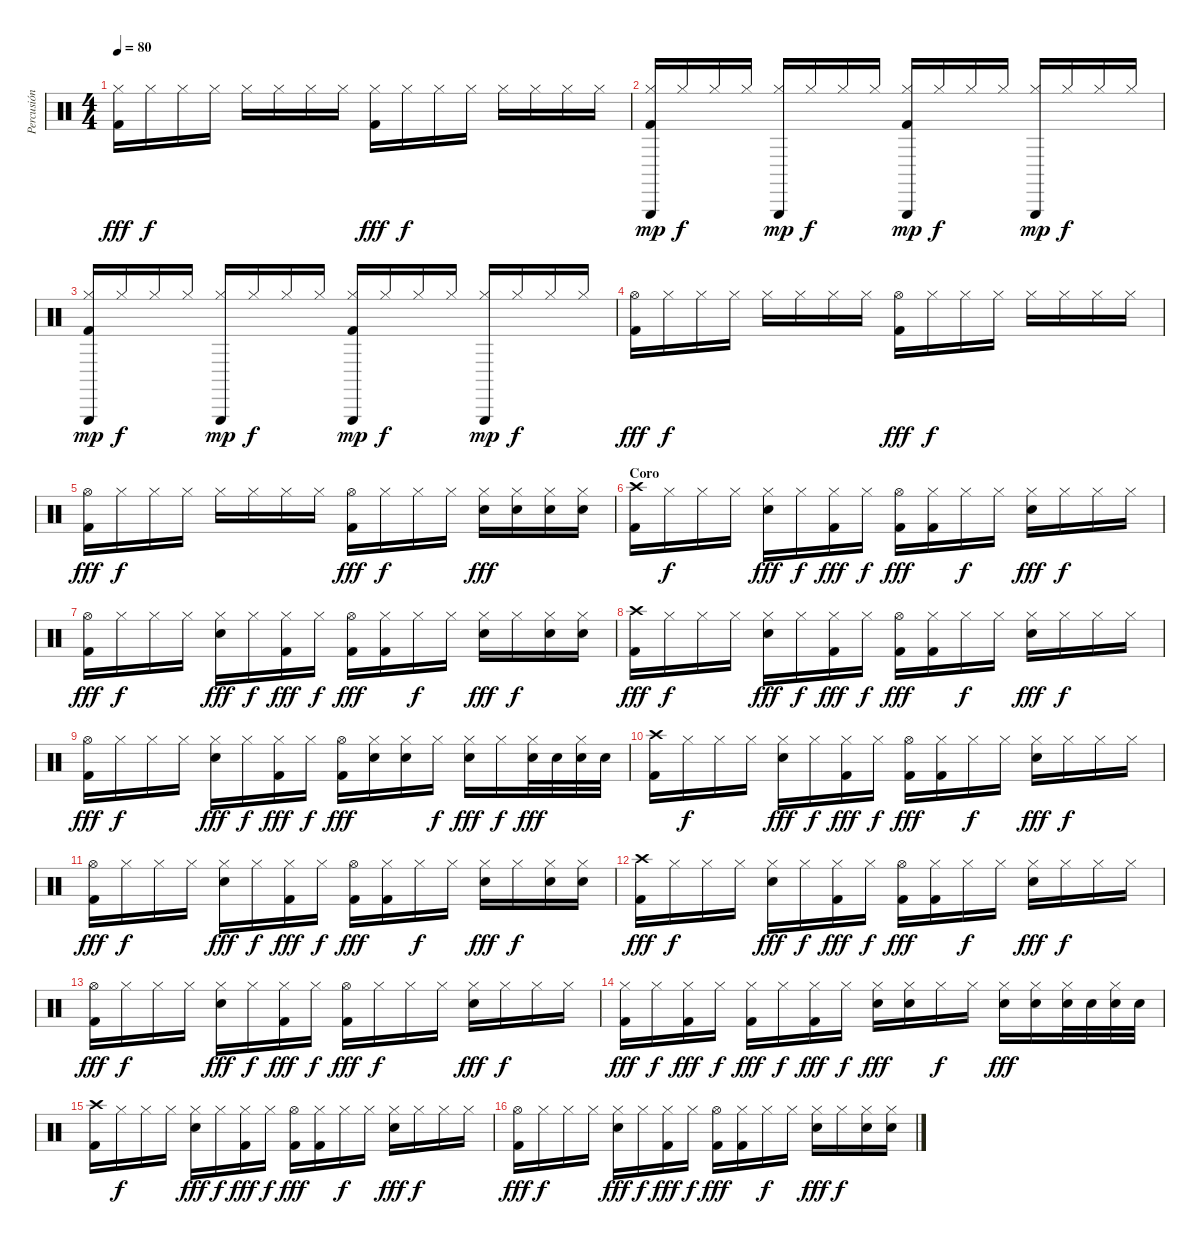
\track ("Percusión" "Percusión") {instrument percussion}
\staff {score}
\articulation defaults
\ts (4 4)
\tempo 80
\clef neutral
\ks c
("Hi-Hat (closed)" "Kick (hit) 2").16{dy fff} "Hi-Hat (closed)".16{dy f} "Hi-Hat (closed)".16 "Hi-Hat (closed)".16 "Hi-Hat (closed)".16 "Hi-Hat (closed)".16 "Hi-Hat (closed)".16 "Hi-Hat (closed)".16 ("Hi-Hat (closed)" "Kick (hit) 2").16{dy fff} "Hi-Hat (closed)".16{dy f} "Hi-Hat (closed)".16 "Hi-Hat (closed)".16 "Hi-Hat (closed)".16 "Hi-Hat (closed)".16 "Hi-Hat (closed)".16 "Hi-Hat (closed)".16 |
("Hi-Hat (closed)" "Kick (hit) 2" "Triangle (hit)").16{dy mp} "Hi-Hat (closed)".16{dy f} "Hi-Hat (closed)".16 "Hi-Hat (closed)".16 ("Hi-Hat (closed)" "Triangle (hit)").16{dy mp} "Hi-Hat (closed)".16{dy f} "Hi-Hat (closed)".16 "Hi-Hat (closed)".16 ("Hi-Hat (closed)" "Kick (hit) 2" "Triangle (hit)").16{dy mp} "Hi-Hat (closed)".16{dy f} "Hi-Hat (closed)".16 "Hi-Hat (closed)".16 ("Hi-Hat (closed)" "Triangle (hit)").16{dy mp} "Hi-Hat (closed)".16{dy f} "Hi-Hat (closed)".16 "Hi-Hat (closed)".16 |
("Hi-Hat (closed)" "Kick (hit) 2" "Triangle (hit)").16{dy mp} "Hi-Hat (closed)".16{dy f} "Hi-Hat (closed)".16 "Hi-Hat (closed)".16 ("Hi-Hat (closed)" "Triangle (hit)").16{dy mp} "Hi-Hat (closed)".16{dy f} "Hi-Hat (closed)".16 "Hi-Hat (closed)".16 ("Hi-Hat (closed)" "Kick (hit) 2" "Triangle (hit)").16{dy mp} "Hi-Hat (closed)".16{dy f} "Hi-Hat (closed)".16 "Hi-Hat (closed)".16 ("Hi-Hat (closed)" "Triangle (hit)").16{dy mp} "Hi-Hat (closed)".16{dy f} "Hi-Hat (closed)".16 "Hi-Hat (closed)".16 |
("Hi-Hat (open)" "Kick (hit) 2").16{dy fff} "Hi-Hat (closed)".16{dy f} "Hi-Hat (closed)".16 "Hi-Hat (closed)".16 "Hi-Hat (closed)".16 "Hi-Hat (closed)".16 "Hi-Hat (closed)".16 "Hi-Hat (closed)".16 ("Hi-Hat (open)" "Kick (hit) 2").16{dy fff} "Hi-Hat (closed)".16{dy f} "Hi-Hat (closed)".16 "Hi-Hat (closed)".16 "Hi-Hat (closed)".16 "Hi-Hat (closed)".16 "Hi-Hat (closed)".16 "Hi-Hat (closed)".16 |
("Hi-Hat (open)" "Kick (hit) 2").16{dy fff} "Hi-Hat (closed)".16{dy f} "Hi-Hat (closed)".16 "Hi-Hat (closed)".16 "Hi-Hat (closed)".16 "Hi-Hat (closed)".16 "Hi-Hat (closed)".16 "Hi-Hat (closed)".16 ("Hi-Hat (open)" "Kick (hit) 2").16{dy fff} "Hi-Hat (closed)".16{dy f} "Hi-Hat (closed)".16 "Hi-Hat (closed)".16 ("Hi-Hat (closed)" "Snare (hit) 2").16{dy fff} ("Hi-Hat (closed)" "Snare (hit) 2").16 ("Hi-Hat (closed)" "Snare (hit) 2").16 ("Hi-Hat (closed)" "Snare (hit) 2").16 |
\section ("" "Coro")
("Crash high (hit)" "Kick (hit) 2").16 "Hi-Hat (closed)".16{dy f} "Hi-Hat (closed)".16 "Hi-Hat (closed)".16 ("Hi-Hat (closed)" "Snare (hit) 2").16{dy fff} "Hi-Hat (closed)".16{dy f} ("Hi-Hat (closed)" "Kick (hit) 2").16{dy fff} "Hi-Hat (closed)".16{dy f} ("Hi-Hat (open)" "Kick (hit) 2").16{dy fff} ("Hi-Hat (closed)" "Kick (hit) 2").16 "Hi-Hat (closed)".16{dy f} "Hi-Hat (closed)".16 ("Hi-Hat (closed)" "Snare (hit) 2").16{dy fff} "Hi-Hat (closed)".16{dy f} "Hi-Hat (closed)".16 "Hi-Hat (closed)".16 |
("Hi-Hat (open)" "Kick (hit) 2").16{dy fff} "Hi-Hat (closed)".16{dy f} "Hi-Hat (closed)".16 "Hi-Hat (closed)".16 ("Hi-Hat (closed)" "Snare (hit) 2").16{dy fff} "Hi-Hat (closed)".16{dy f} ("Hi-Hat (closed)" "Kick (hit) 2").16{dy fff} "Hi-Hat (closed)".16{dy f} ("Hi-Hat (open)" "Kick (hit) 2").16{dy fff} ("Hi-Hat (closed)" "Kick (hit) 2").16 "Hi-Hat (closed)".16{dy f} "Hi-Hat (closed)".16 ("Hi-Hat (closed)" "Snare (hit) 2").16{dy fff} "Hi-Hat (closed)".16{dy f} ("Hi-Hat (closed)" "Snare (hit) 2").16 ("Hi-Hat (closed)" "Snare (hit) 2").16 |
("Crash high (hit)" "Kick (hit) 2").16{dy fff} "Hi-Hat (closed)".16{dy f} "Hi-Hat (closed)".16 "Hi-Hat (closed)".16 ("Hi-Hat (closed)" "Snare (hit) 2").16{dy fff} "Hi-Hat (closed)".16{dy f} ("Hi-Hat (closed)" "Kick (hit) 2").16{dy fff} "Hi-Hat (closed)".16{dy f} ("Hi-Hat (open)" "Kick (hit) 2").16{dy fff} ("Hi-Hat (closed)" "Kick (hit) 2").16 "Hi-Hat (closed)".16{dy f} "Hi-Hat (closed)".16 ("Hi-Hat (closed)" "Snare (hit) 2").16{dy fff} "Hi-Hat (closed)".16{dy f} "Hi-Hat (closed)".16 "Hi-Hat (closed)".16 |
("Hi-Hat (open)" "Kick (hit) 2").16{dy fff} "Hi-Hat (closed)".16{dy f} "Hi-Hat (closed)".16 "Hi-Hat (closed)".16 ("Hi-Hat (closed)" "Snare (hit) 2").16{dy fff} "Hi-Hat (closed)".16{dy f} ("Hi-Hat (closed)" "Kick (hit) 2").16{dy fff} "Hi-Hat (closed)".16{dy f} ("Hi-Hat (open)" "Kick (hit) 2").16{dy fff} ("Hi-Hat (closed)" "Snare (hit) 2").16 ("Hi-Hat (closed)" "Snare (hit) 2").16 "Hi-Hat (closed)".16{dy f} ("Hi-Hat (closed)" "Snare (hit) 2").16{dy fff} "Hi-Hat (closed)".16{dy f} ("Hi-Hat (closed)" "Snare (hit) 2").32{dy fff} "Snare (hit) 2".32 ("Hi-Hat (closed)" "Snare (hit) 2").32 "Snare (hit) 2".32 |
("Crash high (hit)" "Kick (hit) 2").16 "Hi-Hat (closed)".16{dy f} "Hi-Hat (closed)".16 "Hi-Hat (closed)".16 ("Hi-Hat (closed)" "Snare (hit) 2").16{dy fff} "Hi-Hat (closed)".16{dy f} ("Hi-Hat (closed)" "Kick (hit) 2").16{dy fff} "Hi-Hat (closed)".16{dy f} ("Hi-Hat (open)" "Kick (hit) 2").16{dy fff} ("Hi-Hat (closed)" "Kick (hit) 2").16 "Hi-Hat (closed)".16{dy f} "Hi-Hat (closed)".16 ("Hi-Hat (closed)" "Snare (hit) 2").16{dy fff} "Hi-Hat (closed)".16{dy f} "Hi-Hat (closed)".16 "Hi-Hat (closed)".16 |
("Hi-Hat (open)" "Kick (hit) 2").16{dy fff} "Hi-Hat (closed)".16{dy f} "Hi-Hat (closed)".16 "Hi-Hat (closed)".16 ("Hi-Hat (closed)" "Snare (hit) 2").16{dy fff} "Hi-Hat (closed)".16{dy f} ("Hi-Hat (closed)" "Kick (hit) 2").16{dy fff} "Hi-Hat (closed)".16{dy f} ("Hi-Hat (open)" "Kick (hit) 2").16{dy fff} ("Hi-Hat (closed)" "Kick (hit) 2").16 "Hi-Hat (closed)".16{dy f} "Hi-Hat (closed)".16 ("Hi-Hat (closed)" "Snare (hit) 2").16{dy fff} "Hi-Hat (closed)".16{dy f} ("Hi-Hat (closed)" "Snare (hit) 2").16 ("Hi-Hat (closed)" "Snare (hit) 2").16 |
("Crash high (hit)" "Kick (hit) 2").16{dy fff} "Hi-Hat (closed)".16{dy f} "Hi-Hat (closed)".16 "Hi-Hat (closed)".16 ("Hi-Hat (closed)" "Snare (hit) 2").16{dy fff} "Hi-Hat (closed)".16{dy f} ("Hi-Hat (closed)" "Kick (hit) 2").16{dy fff} "Hi-Hat (closed)".16{dy f} ("Hi-Hat (open)" "Kick (hit) 2").16{dy fff} ("Hi-Hat (closed)" "Kick (hit) 2").16 "Hi-Hat (closed)".16{dy f} "Hi-Hat (closed)".16 ("Hi-Hat (closed)" "Snare (hit) 2").16{dy fff} "Hi-Hat (closed)".16{dy f} "Hi-Hat (closed)".16 "Hi-Hat (closed)".16 |
("Hi-Hat (open)" "Kick (hit) 2").16{dy fff} "Hi-Hat (closed)".16{dy f} "Hi-Hat (closed)".16 "Hi-Hat (closed)".16 ("Hi-Hat (closed)" "Snare (hit) 2").16{dy fff} "Hi-Hat (closed)".16{dy f} ("Hi-Hat (closed)" "Kick (hit) 2").16{dy fff} "Hi-Hat (closed)".16{dy f} ("Hi-Hat (open)" "Kick (hit) 2").16{dy fff} "Hi-Hat (closed)".16{dy f} "Hi-Hat (closed)".16 "Hi-Hat (closed)".16 ("Hi-Hat (closed)" "Snare (hit) 2").16{dy fff} "Hi-Hat (closed)".16{dy f} "Hi-Hat (closed)".16 "Hi-Hat (closed)".16 |
("Hi-Hat (closed)" "Kick (hit) 2").16{dy fff} "Hi-Hat (closed)".16{dy f} ("Hi-Hat (closed)" "Kick (hit) 2").16{dy fff} "Hi-Hat (closed)".16{dy f} ("Hi-Hat (closed)" "Kick (hit) 2").16{dy fff} "Hi-Hat (closed)".16{dy f} ("Hi-Hat (closed)" "Kick (hit) 2").16{dy fff} "Hi-Hat (closed)".16{dy f} ("Hi-Hat (closed)" "Snare (hit) 2").16{dy fff} ("Hi-Hat (closed)" "Snare (hit) 2").16 "Hi-Hat (closed)".16{dy f} "Hi-Hat (closed)".16 ("Hi-Hat (closed)" "Snare (hit) 2").16{dy fff} ("Hi-Hat (closed)" "Snare (hit) 2").16 ("Hi-Hat (closed)" "Snare (hit) 2").32 "Snare (hit) 2".32 ("Hi-Hat (closed)" "Snare (hit) 2").32 "Snare (hit) 2".32 |
("Crash high (hit)" "Kick (hit) 2").16 "Hi-Hat (closed)".16{dy f} "Hi-Hat (closed)".16 "Hi-Hat (closed)".16 ("Hi-Hat (closed)" "Snare (hit) 2").16{dy fff} "Hi-Hat (closed)".16{dy f} ("Hi-Hat (closed)" "Kick (hit) 2").16{dy fff} "Hi-Hat (closed)".16{dy f} ("Hi-Hat (open)" "Kick (hit) 2").16{dy fff} ("Hi-Hat (closed)" "Kick (hit) 2").16 "Hi-Hat (closed)".16{dy f} "Hi-Hat (closed)".16 ("Hi-Hat (closed)" "Snare (hit) 2").16{dy fff} "Hi-Hat (closed)".16{dy f} "Hi-Hat (closed)".16 "Hi-Hat (closed)".16 |
("Hi-Hat (open)" "Kick (hit) 2").16{dy fff} "Hi-Hat (closed)".16{dy f} "Hi-Hat (closed)".16 "Hi-Hat (closed)".16 ("Hi-Hat (closed)" "Snare (hit) 2").16{dy fff} "Hi-Hat (closed)".16{dy f} ("Hi-Hat (closed)" "Kick (hit) 2").16{dy fff} "Hi-Hat (closed)".16{dy f} ("Hi-Hat (open)" "Kick (hit) 2").16{dy fff} ("Hi-Hat (closed)" "Kick (hit) 2").16 "Hi-Hat (closed)".16{dy f} "Hi-Hat (closed)".16 ("Hi-Hat (closed)" "Snare (hit) 2").16{dy fff} "Hi-Hat (closed)".16{dy f} ("Hi-Hat (closed)" "Snare (hit) 2").16 ("Hi-Hat (closed)" "Snare (hit) 2").16
